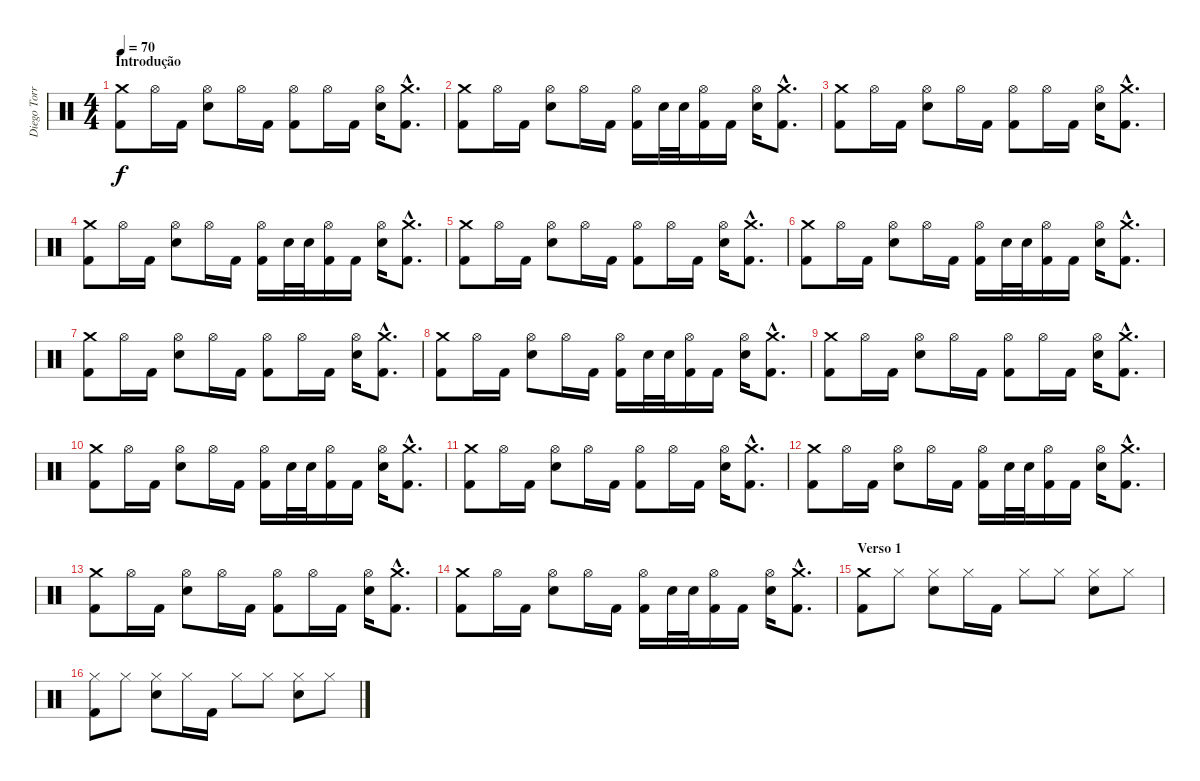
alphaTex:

\track ("Diego Torres [Bateria]" "Diego Torr") {instrument percussion}
\staff {score}
\articulation defaults
\ts (4 4)
\section ("" "Introdução")
\tempo 70
\clef neutral
\ks c
("Crash medium (hit)" "Kick (hit) 2").8{dy f} "Hi-Hat (open)".16 "Kick (hit) 2".16 ("Hi-Hat (open)" "Electric Snare (hit)").8 "Hi-Hat (open)".16 "Kick (hit) 2".16 ("Hi-Hat (open)" "Kick (hit) 2").8 "Hi-Hat (open)".16 "Kick (hit) 2".16 ("Hi-Hat (open)" "Electric Snare (hit)").16 ("Crash medium (hit)"{hac} "Kick (hit) 2"{hac}).8{d} |
("Crash medium (hit)" "Kick (hit) 2").8 "Hi-Hat (open)".16 "Kick (hit) 2".16 ("Hi-Hat (open)" "Electric Snare (hit)").8 "Hi-Hat (open)".16 "Kick (hit) 2".16 ("Hi-Hat (open)" "Kick (hit) 2").16 "Electric Snare (hit)".32 "Electric Snare (hit)".32 ("Hi-Hat (open)" "Kick (hit) 2").16 "Kick (hit) 2".16 ("Hi-Hat (open)" "Electric Snare (hit)").16 ("Crash medium (hit)"{hac} "Kick (hit) 2"{hac}).8{d} |
("Crash medium (hit)" "Kick (hit) 2").8 "Hi-Hat (open)".16 "Kick (hit) 2".16 ("Hi-Hat (open)" "Electric Snare (hit)").8 "Hi-Hat (open)".16 "Kick (hit) 2".16 ("Hi-Hat (open)" "Kick (hit) 2").8 "Hi-Hat (open)".16 "Kick (hit) 2".16 ("Hi-Hat (open)" "Electric Snare (hit)").16 ("Crash medium (hit)"{hac} "Kick (hit) 2"{hac}).8{d} |
("Crash medium (hit)" "Kick (hit) 2").8 "Hi-Hat (open)".16 "Kick (hit) 2".16 ("Hi-Hat (open)" "Electric Snare (hit)").8 "Hi-Hat (open)".16 "Kick (hit) 2".16 ("Hi-Hat (open)" "Kick (hit) 2").16 "Electric Snare (hit)".32 "Electric Snare (hit)".32 ("Hi-Hat (open)" "Kick (hit) 2").16 "Kick (hit) 2".16 ("Hi-Hat (open)" "Electric Snare (hit)").16 ("Crash medium (hit)"{hac} "Kick (hit) 2"{hac}).8{d} |
("Crash medium (hit)" "Kick (hit) 2").8 "Hi-Hat (open)".16 "Kick (hit) 2".16 ("Hi-Hat (open)" "Electric Snare (hit)").8 "Hi-Hat (open)".16 "Kick (hit) 2".16 ("Hi-Hat (open)" "Kick (hit) 2").8 "Hi-Hat (open)".16 "Kick (hit) 2".16 ("Hi-Hat (open)" "Electric Snare (hit)").16 ("Crash medium (hit)"{hac} "Kick (hit) 2"{hac}).8{d} |
("Crash medium (hit)" "Kick (hit) 2").8 "Hi-Hat (open)".16 "Kick (hit) 2".16 ("Hi-Hat (open)" "Electric Snare (hit)").8 "Hi-Hat (open)".16 "Kick (hit) 2".16 ("Hi-Hat (open)" "Kick (hit) 2").16 "Electric Snare (hit)".32 "Electric Snare (hit)".32 ("Hi-Hat (open)" "Kick (hit) 2").16 "Kick (hit) 2".16 ("Hi-Hat (open)" "Electric Snare (hit)").16 ("Crash medium (hit)"{hac} "Kick (hit) 2"{hac}).8{d} |
("Crash medium (hit)" "Kick (hit) 2").8 "Hi-Hat (open)".16 "Kick (hit) 2".16 ("Hi-Hat (open)" "Electric Snare (hit)").8 "Hi-Hat (open)".16 "Kick (hit) 2".16 ("Hi-Hat (open)" "Kick (hit) 2").8 "Hi-Hat (open)".16 "Kick (hit) 2".16 ("Hi-Hat (open)" "Electric Snare (hit)").16 ("Crash medium (hit)"{hac} "Kick (hit) 2"{hac}).8{d} |
("Crash medium (hit)" "Kick (hit) 2").8 "Hi-Hat (open)".16 "Kick (hit) 2".16 ("Hi-Hat (open)" "Electric Snare (hit)").8 "Hi-Hat (open)".16 "Kick (hit) 2".16 ("Hi-Hat (open)" "Kick (hit) 2").16 "Electric Snare (hit)".32 "Electric Snare (hit)".32 ("Hi-Hat (open)" "Kick (hit) 2").16 "Kick (hit) 2".16 ("Hi-Hat (open)" "Electric Snare (hit)").16 ("Crash medium (hit)"{hac} "Kick (hit) 2"{hac}).8{d} |
("Crash medium (hit)" "Kick (hit) 2").8 "Hi-Hat (open)".16 "Kick (hit) 2".16 ("Hi-Hat (open)" "Electric Snare (hit)").8 "Hi-Hat (open)".16 "Kick (hit) 2".16 ("Hi-Hat (open)" "Kick (hit) 2").8 "Hi-Hat (open)".16 "Kick (hit) 2".16 ("Hi-Hat (open)" "Electric Snare (hit)").16 ("Crash medium (hit)"{hac} "Kick (hit) 2"{hac}).8{d} |
("Crash medium (hit)" "Kick (hit) 2").8 "Hi-Hat (open)".16 "Kick (hit) 2".16 ("Hi-Hat (open)" "Electric Snare (hit)").8 "Hi-Hat (open)".16 "Kick (hit) 2".16 ("Hi-Hat (open)" "Kick (hit) 2").16 "Electric Snare (hit)".32 "Electric Snare (hit)".32 ("Hi-Hat (open)" "Kick (hit) 2").16 "Kick (hit) 2".16 ("Hi-Hat (open)" "Electric Snare (hit)").16 ("Crash medium (hit)"{hac} "Kick (hit) 2"{hac}).8{d} |
("Crash medium (hit)" "Kick (hit) 2").8 "Hi-Hat (open)".16 "Kick (hit) 2".16 ("Hi-Hat (open)" "Electric Snare (hit)").8 "Hi-Hat (open)".16 "Kick (hit) 2".16 ("Hi-Hat (open)" "Kick (hit) 2").8 "Hi-Hat (open)".16 "Kick (hit) 2".16 ("Hi-Hat (open)" "Electric Snare (hit)").16 ("Crash medium (hit)"{hac} "Kick (hit) 2"{hac}).8{d} |
("Crash medium (hit)" "Kick (hit) 2").8 "Hi-Hat (open)".16 "Kick (hit) 2".16 ("Hi-Hat (open)" "Electric Snare (hit)").8 "Hi-Hat (open)".16 "Kick (hit) 2".16 ("Hi-Hat (open)" "Kick (hit) 2").16 "Electric Snare (hit)".32 "Electric Snare (hit)".32 ("Hi-Hat (open)" "Kick (hit) 2").16 "Kick (hit) 2".16 ("Hi-Hat (open)" "Electric Snare (hit)").16 ("Crash medium (hit)"{hac} "Kick (hit) 2"{hac}).8{d} |
("Crash medium (hit)" "Kick (hit) 2").8 "Hi-Hat (open)".16 "Kick (hit) 2".16 ("Hi-Hat (open)" "Electric Snare (hit)").8 "Hi-Hat (open)".16 "Kick (hit) 2".16 ("Hi-Hat (open)" "Kick (hit) 2").8 "Hi-Hat (open)".16 "Kick (hit) 2".16 ("Hi-Hat (open)" "Electric Snare (hit)").16 ("Crash medium (hit)"{hac} "Kick (hit) 2"{hac}).8{d} |
("Crash medium (hit)" "Kick (hit) 2").8 "Hi-Hat (open)".16 "Kick (hit) 2".16 ("Hi-Hat (open)" "Electric Snare (hit)").8 "Hi-Hat (open)".16 "Kick (hit) 2".16 ("Hi-Hat (open)" "Kick (hit) 2").16 "Electric Snare (hit)".32 "Electric Snare (hit)".32 ("Hi-Hat (open)" "Kick (hit) 2").16 "Kick (hit) 2".16 ("Hi-Hat (open)" "Electric Snare (hit)").16 ("Crash medium (hit)"{hac} "Kick (hit) 2"{hac}).8{d} |
\section ("" "Verso 1")
("Crash medium (hit)" "Kick (hit) 2").8 "Hi-Hat (closed)".8 ("Hi-Hat (closed)" "Electric Snare (hit)").8 "Hi-Hat (closed)".16 "Kick (hit) 2".16 "Hi-Hat (closed)".8 "Hi-Hat (closed)".8 ("Hi-Hat (closed)" "Electric Snare (hit)").8 "Hi-Hat (closed)".8 |
("Hi-Hat (closed)" "Kick (hit) 2").8 "Hi-Hat (closed)".8 ("Hi-Hat (closed)" "Electric Snare (hit)").8 "Hi-Hat (closed)".16 "Kick (hit) 2".16 "Hi-Hat (closed)".8 "Hi-Hat (closed)".8 ("Hi-Hat (closed)" "Electric Snare (hit)").8 "Hi-Hat (closed)".8
